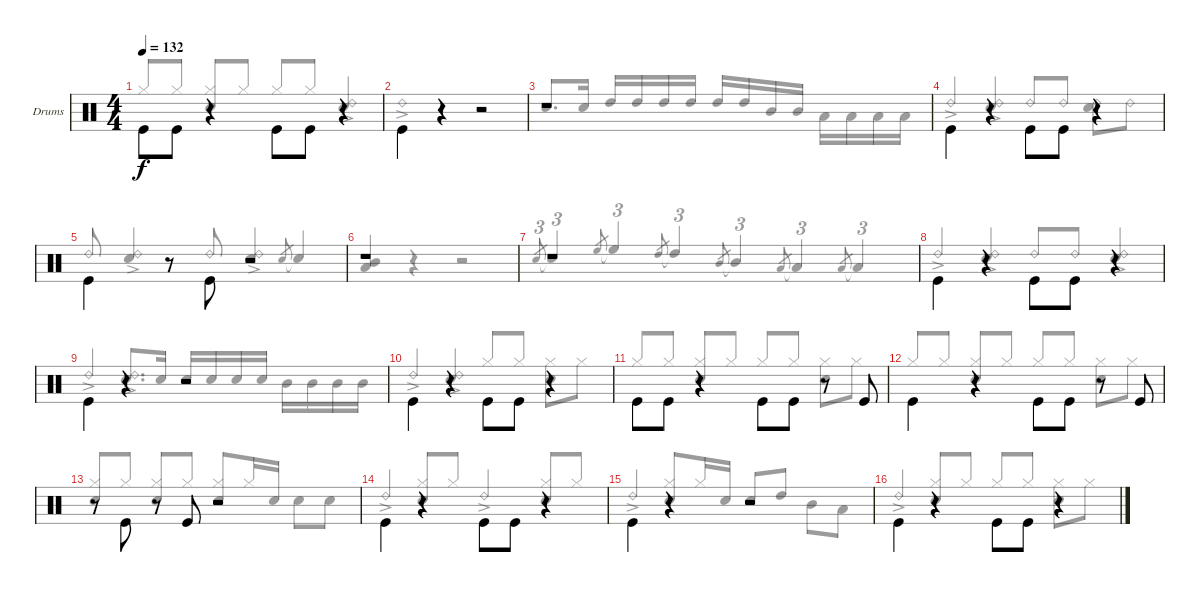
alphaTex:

\bracketExtendMode groupsimilarinstruments
\firstSystemTrackNameOrientation horizontal
\otherSystemsTrackNameOrientation horizontal
\track ("Drum" "Drums") {instrument percussion}
\staff {score}
\articulation defaults
\voice
\ts (4 4)
\tempo 132
\clef neutral
\scale
0.973518
\ks aminor "Kick (hit)".8{dy f beam invert} "Kick (hit)".8
r.4 "Kick (hit)".8{beam invert} "Kick (hit)".8 r.4 |
\scale
1.02648 "Kick (hit)".4{beam invert} r.4{beam invert} r.2 |
\scale
0.973518 r.1 |
\scale
1.02648 "Kick (hit)".4{beam invert} r.4{beam invert} "Kick (hit)".8{beam invert} "Kick (hit)".8 r.4 |
\scale
0.973518 "Kick (hit)".4{beam invert} r.8{beam invert} "Kick (hit)".8{beam invert} r.2 |
\scale
1.02648 r.1 |
\scale
0.973518 r.1 |
\scale
1.02648 "Kick (hit)".4{beam invert} r.4{beam invert} "Kick (hit)".8{beam invert} "Kick (hit)".8 r.4 |
\scale
0.973518 "Kick (hit)".4{beam invert} r.4{beam invert} r.2 |
\scale
1.02648 "Kick (hit)".4{beam invert} r.4{beam invert} "Kick (hit)".8{beam invert} "Kick (hit)".8 r.4 |
\scale
0.973518 "Kick (hit)".8{beam invert} "Kick (hit)".8 r.4 "Kick (hit)".8{beam invert} "Kick (hit)".8 r.8 "Kick (hit)".8 |
\scale
1.02648 "Kick (hit)".4{beam invert} r.4{beam invert} "Kick (hit)".8{beam invert} "Kick (hit)".8 r.8 "Kick (hit)".8 |
\scale
0.973518 r.8 "Kick (hit)".8{beam invert} r.8 "Kick (hit)".8 r.2 |
\scale
1.02648 "Kick (hit)".4{beam invert} r.4{beam invert} "Kick (hit)".8{beam invert} "Kick (hit)".8 r.4 |
\scale
0.973518 "Kick (hit)".4{beam invert} r.4{beam invert} r.2 |
\scale
1.02648 "Kick (hit)".4{beam invert} r.4{beam invert} "Kick (hit)".8{beam invert} "Kick (hit)".8 r.4
\voice
\clef neutral
\ottava regular
\simile none
\scale
0.973518
\ks aminor "Hi-Hat (closed)".8{dy f beam invert} "Hi-Hat (closed)".8
("Hi-Hat (closed)" "Snare (hit) 2").8 "Hi-Hat (closed)".8 "Hi-Hat (closed)".8{beam invert} "Hi-Hat (closed)".8 ("Ride (bell) 2"{ac} "Snare (hit) 2").4{beam invert} |
\scale
1.02648 "Ride (bell) 2"{ac}.1{beam invert} |
\scale
0.973518 "Snare (hit) 2".8{d beam invert} "Snare (hit) 2".16 "High Tom (hit)".16 "High Tom (hit)".16 "High Tom (hit)".16 "High Tom (hit)".16 "High Tom (hit)".16{beam invert} "High Tom (hit)".16 "Mid Tom (hit)".16 "Mid Tom (hit)".16 "Low Tom (hit)".16 "Low Tom (hit)".16 "Low Tom (hit)".16 "Low Tom (hit)".16 |
\scale
1.02648 "Ride (bell) 2"{ac}.4{beam invert} ("Ride (bell) 2"{ac} "Snare (hit) 2").4{beam invert} "Ride (bell) 2".8{beam invert} "Ride (bell) 2".8 ("Ride (bell) 2" "Snare (hit) 2").8 "Ride (bell) 2".8 |
\scale
0.973518 "Ride (bell) 2".8{beam invert} ("Ride (bell) 2"{ac} "Snare (hit) 2").4{beam invert} "Ride (bell) 2".8{beam invert} ("Ride (bell) 2"{ac} "Snare (hit) 2").4{beam invert} "Snare (hit) 2".8{gr beam invert} "Snare (hit) 2"{t}.4{beam invert} |
\scale
1.02648 ("Low Tom (hit)" "Mid Tom (hit)").4{beam invert} r.4 r.2 |
\scale
0.973518 "Snare (hit) 2".8{tu (3 2) gr beam invert} "Snare (hit) 2"{t}.4{tu (3 2) beam invert} "High Floor Tom (hit)".8{tu (3 2) gr beam invert} "High Floor Tom (hit)"{t}.4{tu (3 2) beam invert} "High Tom (hit)".8{tu (3 2) gr beam invert} "High Tom (hit)"{t}.4{tu (3 2) beam invert} "Mid Tom (hit)".8{tu (3 2) gr beam invert} "Mid Tom (hit)"{t}.4{tu (3 2) beam invert} "Low Tom (hit)".8{tu (3 2) gr beam invert} "Low Tom (hit)"{t}.4{tu (3 2) beam invert} "Low Tom (hit)".8{tu (3 2) gr beam invert} "Low Tom (hit)"{t}.4{tu (3 2) beam invert} |
\scale
1.02648 "Ride (bell) 2"{ac}.4{beam invert} ("Ride (bell) 2"{ac} "Snare (hit) 2").4{beam invert} "Ride (bell) 2".8{beam invert} "Ride (bell) 2".8 ("Ride (bell) 2"{ac} "Snare (hit) 2").4{beam invert} |
\scale
0.973518 "Ride (bell) 2"{ac}.4{beam invert} ("Ride (bell) 2"{ac} "Snare (hit) 2").8{d beam invert} "Snare (hit) 2".16 "Snare (hit) 2".16{beam invert} "Snare (hit) 2".16 "Snare (hit) 2".16 "Snare (hit) 2".16 "Mid Tom (hit)".16 "Mid Tom (hit)".16 "Mid Tom (hit)".16 "Mid Tom (hit)".16 |
\scale
1.02648 "Ride (bell) 2"{ac}.4{beam invert} ("Ride (bell) 2"{ac} "Snare (hit) 2").4{beam invert} "Hi-Hat (closed)".8{beam invert} "Hi-Hat (closed)".8 ("Hi-Hat (closed)" "Snare (hit) 2").8 "Hi-Hat (closed)".8 |
\scale
0.973518 "Hi-Hat (closed)".8{beam invert} "Hi-Hat (closed)".8 ("Hi-Hat (closed)" "Snare (hit) 2").8 "Hi-Hat (closed)".8 "Hi-Hat (closed)".8{beam invert} "Hi-Hat (closed)".8 ("Hi-Hat (closed)" "Snare (hit) 2").8 "Hi-Hat (closed)".8 |
\scale
1.02648 "Hi-Hat (closed)".8{beam invert} "Hi-Hat (closed)".8 ("Hi-Hat (closed)" "Snare (hit) 2").8 "Hi-Hat (closed)".8 "Hi-Hat (closed)".8{beam invert} "Hi-Hat (closed)".8 ("Hi-Hat (closed)" "Snare (hit) 2").8 "Hi-Hat (closed)".8 |
\scale
0.973518 ("Hi-Hat (closed)" "Snare (hit) 2").8{beam invert} "Hi-Hat (closed)".8 ("Hi-Hat (closed)" "Snare (hit) 2").8 "Hi-Hat (closed)".8 ("Hi-Hat (closed)" "Snare (hit) 2").8{beam invert} "Hi-Hat (closed)".16 "Snare (hit) 2".16 "Snare (hit) 2".8 "Snare (hit) 2".8 |
\scale
1.02648 "Ride (bell) 2"{ac}.4{beam invert} ("Hi-Hat (closed)" "Snare (hit) 2").8{beam invert} "Hi-Hat (closed)".8 "Ride (bell) 2"{ac}.4{beam invert} ("Hi-Hat (closed)" "Snare (hit) 2").8{beam invert} "Hi-Hat (closed)".8 |
\scale
0.973518 "Ride (bell) 2"{ac}.4{beam invert} ("Hi-Hat (closed)" "Snare (hit) 2").8{beam invert} "Hi-Hat (closed)".16 "Snare (hit) 2".16 "Snare (hit) 2".8{beam invert} "High Tom (hit)".8 "Mid Tom (hit)".8 "Low Tom (hit)".8 |
\scale
1.02648 "Ride (bell) 2"{ac}.4{beam invert} ("Hi-Hat (closed)" "Snare (hit) 2").8{beam invert} "Hi-Hat (closed)".8 "Hi-Hat (closed)".8{beam invert} "Hi-Hat (closed)".8 ("Hi-Hat (closed)" "Snare (hit) 2").8 "Hi-Hat (closed)".8
